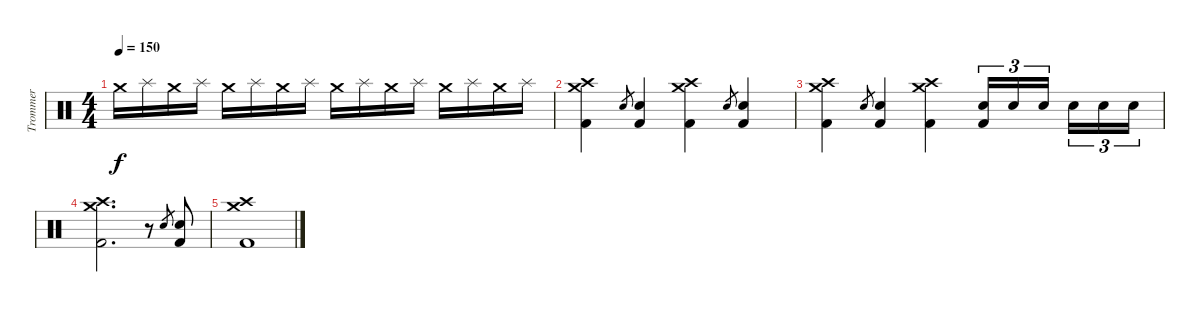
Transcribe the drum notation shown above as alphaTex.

\track ("Trommer" "Trommer") {instrument percussion}
\staff {score}
\articulation defaults
\ts (4 4)
\tempo 150
\clef neutral
\ks c "Crash medium (hit)".16{dy f} "Splash (hit)".16 "Crash medium (hit)".16 "Splash (hit)".16 "Crash medium (hit)".16 "Splash (hit)".16 "Crash medium (hit)".16 "Splash (hit)".16 "Crash medium (hit)".16 "Splash (hit)".16 "Crash medium (hit)".16 "Splash (hit)".16 "Crash medium (hit)".16 "Splash (hit)".16 "Crash medium (hit)".16 "Splash (hit)".16
|
("Crash medium (hit)" "Crash high (hit)" "Kick (hit) 2").4 "Snare (hit) 2".8{gr} ("Snare (hit) 2" "Kick (hit) 2").4 ("Crash medium (hit)" "Crash high (hit)" "Kick (hit) 2").4 "Snare (hit) 2".8{gr} ("Snare (hit) 2" "Kick (hit) 2").4 |
("Crash medium (hit)" "Crash high (hit)" "Kick (hit) 2").4 "Snare (hit) 2".8{gr} ("Snare (hit) 2" "Kick (hit) 2").4 ("Crash medium (hit)" "Crash high (hit)" "Kick (hit) 2").4 ("Snare (hit) 2" "Kick (hit) 2").16{tu (3 2)} "Snare (hit) 2".16{tu (3 2)} "Snare (hit) 2".16{tu (3 2) beam splitsecondary} "Snare (hit) 2".16{tu (3 2)} "Snare (hit) 2".16{tu (3 2)} "Snare (hit) 2".16{tu (3 2)} |
("Crash medium (hit)" "Crash high (hit)" "Kick (hit) 2").2{d} r.8 "Snare (hit) 2".8{gr} ("Snare (hit) 2" "Kick (hit) 2").8 |
("Crash medium (hit)" "Crash high (hit)" "Kick (hit) 2").1
